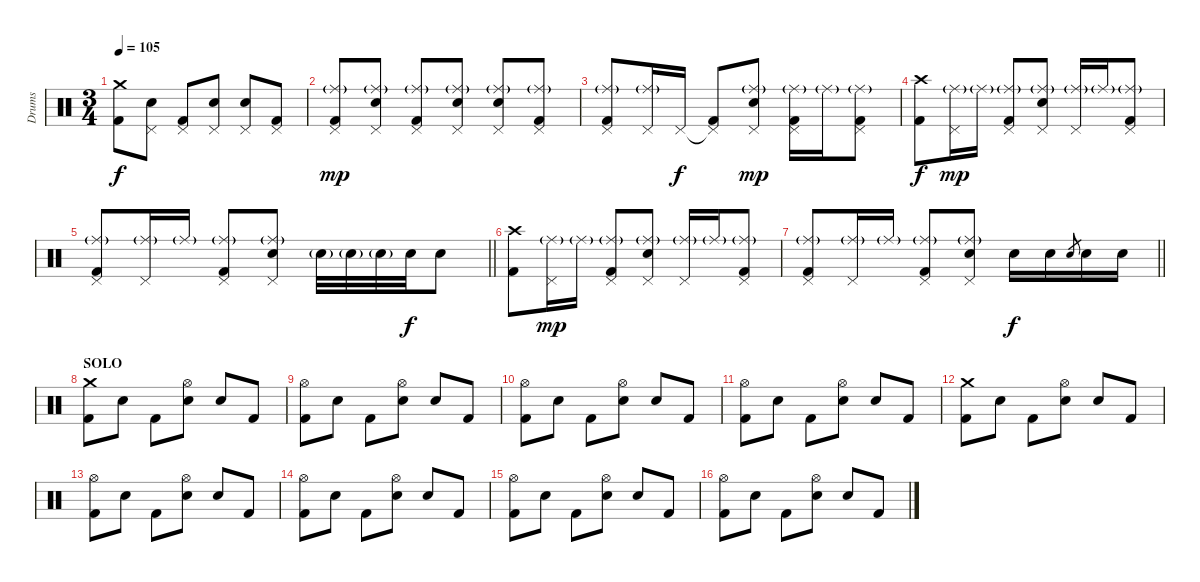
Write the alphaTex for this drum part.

\track ("Drums" "Drums") {instrument percussion}
\staff {score}
\articulation defaults
\ts (3 4)
\tempo 105
\clef neutral
\ks c
("Crash medium (hit)" "Kick (hit) 2").8{dy f} ("Pedal Hi-Hat (hit)" "Snare (hit)").8 ("Pedal Hi-Hat (hit)" "Kick (hit) 2").8 ("Pedal Hi-Hat (hit)" "Electric Snare (hit)").8 ("Pedal Hi-Hat (hit)" "Snare (hit)").8 ("Pedal Hi-Hat (hit)" "Kick (hit) 2").8 |
("Ride (middle)"{g} "Pedal Hi-Hat (hit)" "Kick (hit) 2").8{dy mp} ("Ride (middle)"{g} "Pedal Hi-Hat (hit)" "Snare (hit)").8 ("Ride (middle)"{g} "Pedal Hi-Hat (hit)" "Kick (hit) 2").8 ("Ride (middle)"{g} "Pedal Hi-Hat (hit)" "Electric Snare (hit)").8 ("Ride (middle)"{g} "Pedal Hi-Hat (hit)" "Snare (hit)").8 ("Ride (middle)"{g} "Pedal Hi-Hat (hit)" "Kick (hit) 2").8 |
("Ride (middle)"{g} "Pedal Hi-Hat (hit)" "Kick (hit) 2").8 ("Ride (middle)"{g} "Pedal Hi-Hat (hit)").16 "Pedal Hi-Hat (hit)".16{dy f} ("Pedal Hi-Hat (hit)"{t} "Kick (hit) 2").8 ("Ride (middle)"{g} "Pedal Hi-Hat (hit)" "Electric Snare (hit)").8{dy mp} ("Ride (middle)"{g} "Pedal Hi-Hat (hit)" "Kick (hit) 2").16 "Ride (middle)"{g}.16 ("Ride (middle)"{g} "Pedal Hi-Hat (hit)" "Kick (hit) 2").8 |
("Crash high (hit)" "Kick (hit) 2").8{dy f} ("Ride (middle)"{g} "Pedal Hi-Hat (hit)").16{dy mp} "Ride (middle)"{g}.16 ("Ride (middle)"{g} "Pedal Hi-Hat (hit)" "Kick (hit) 2").8 ("Ride (middle)"{g} "Pedal Hi-Hat (hit)" "Electric Snare (hit)").8 ("Ride (middle)"{g} "Pedal Hi-Hat (hit)").16 "Ride (middle)"{g}.16 ("Ride (middle)"{g} "Pedal Hi-Hat (hit)" "Kick (hit) 2").8 |
\barLineRight lightlight
("Ride (middle)"{g} "Pedal Hi-Hat (hit)" "Kick (hit) 2").8 ("Ride (middle)"{g} "Pedal Hi-Hat (hit)").16 "Ride (middle)"{g}.16 ("Ride (middle)"{g} "Pedal Hi-Hat (hit)" "Kick (hit) 2").8 ("Ride (middle)"{g} "Pedal Hi-Hat (hit)" "Electric Snare (hit)").8 "Electric Snare (hit)"{g}.32 "Electric Snare (hit)"{g}.32 "Electric Snare (hit)"{g}.32 "Electric Snare (hit)".32{dy f} "Electric Snare (hit)".8 |
("Crash high (hit)" "Kick (hit) 2").8 ("Ride (middle)"{g} "Pedal Hi-Hat (hit)").16{dy mp} "Ride (middle)"{g}.16 ("Ride (middle)"{g} "Pedal Hi-Hat (hit)" "Kick (hit) 2").8 ("Ride (middle)"{g} "Pedal Hi-Hat (hit)" "Electric Snare (hit)").8 ("Ride (middle)"{g} "Pedal Hi-Hat (hit)").16 "Ride (middle)"{g}.16 ("Ride (middle)"{g} "Pedal Hi-Hat (hit)" "Kick (hit) 2").8 |
\barLineRight lightlight
("Ride (middle)"{g} "Pedal Hi-Hat (hit)" "Kick (hit) 2").8 ("Ride (middle)"{g} "Pedal Hi-Hat (hit)").16 "Ride (middle)"{g}.16 ("Ride (middle)"{g} "Pedal Hi-Hat (hit)" "Kick (hit) 2").8 ("Ride (middle)"{g} "Pedal Hi-Hat (hit)" "Electric Snare (hit)").8 "Electric Snare (hit)".16{dy f} "Electric Snare (hit)".16 "Electric Snare (hit)".8{gr} "Electric Snare (hit)".16 "Electric Snare (hit)".16 |
\section ("" "SOLO")
("Crash medium (hit)" "Kick (hit) 2").8 "Snare (hit)".8 "Kick (hit) 2".8 ("Hi-Hat (open)" "Electric Snare (hit)").8 "Snare (hit)".8 "Kick (hit) 2".8 |
("Hi-Hat (open)" "Kick (hit) 2").8 "Snare (hit)".8 "Kick (hit) 2".8 ("Hi-Hat (open)" "Electric Snare (hit)").8 "Snare (hit)".8 "Kick (hit) 2".8 |
("Hi-Hat (open)" "Kick (hit) 2").8 "Snare (hit)".8 "Kick (hit) 2".8 ("Hi-Hat (open)" "Electric Snare (hit)").8 "Snare (hit)".8 "Kick (hit) 2".8 |
("Hi-Hat (open)" "Kick (hit) 2").8 "Snare (hit)".8 "Kick (hit) 2".8 ("Hi-Hat (open)" "Electric Snare (hit)").8 "Snare (hit)".8 "Kick (hit) 2".8 |
("Crash medium (hit)" "Kick (hit) 2").8 "Snare (hit)".8 "Kick (hit) 2".8 ("Hi-Hat (open)" "Electric Snare (hit)").8 "Snare (hit)".8 "Kick (hit) 2".8 |
("Hi-Hat (open)" "Kick (hit) 2").8 "Snare (hit)".8 "Kick (hit) 2".8 ("Hi-Hat (open)" "Electric Snare (hit)").8 "Snare (hit)".8 "Kick (hit) 2".8 |
("Hi-Hat (open)" "Kick (hit) 2").8 "Snare (hit)".8 "Kick (hit) 2".8 ("Hi-Hat (open)" "Electric Snare (hit)").8 "Snare (hit)".8 "Kick (hit) 2".8 |
("Hi-Hat (open)" "Kick (hit) 2").8 "Snare (hit)".8 "Kick (hit) 2".8 ("Hi-Hat (open)" "Electric Snare (hit)").8 "Snare (hit)".8 "Kick (hit) 2".8 |
("Hi-Hat (open)" "Kick (hit) 2").8 "Snare (hit)".8 "Kick (hit) 2".8 ("Hi-Hat (open)" "Electric Snare (hit)").8 "Snare (hit)".8 "Kick (hit) 2".8
